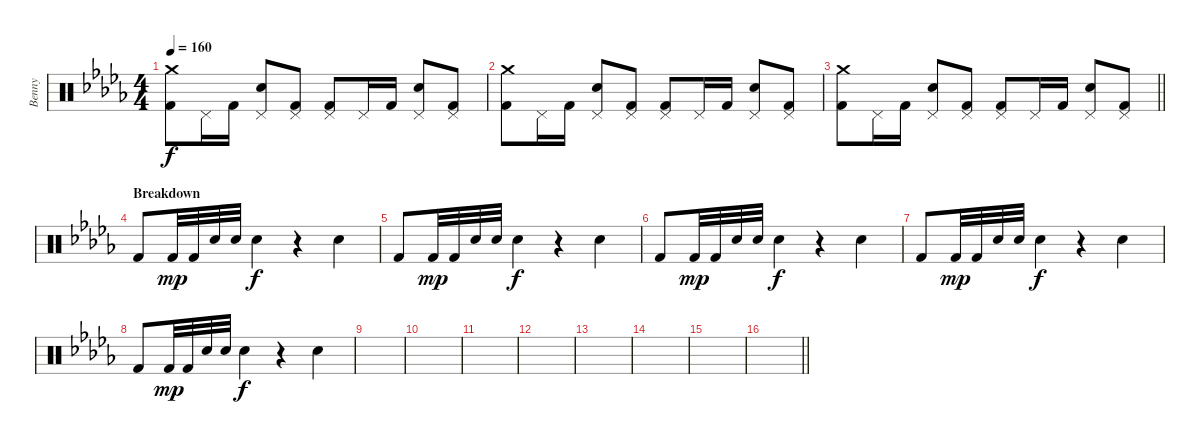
\track ("Benny" "Benny") {instrument percussion}
\staff {score}
\articulation defaults
\ts (4 4)
\tempo 160
\clef neutral
\ks db
("Crash medium (hit)" "Kick (hit) 2").8{dy f} "Pedal Hi-Hat (hit)".16 "Kick (hit) 2".16 ("Pedal Hi-Hat (hit)" "Snare (hit) 2").8 ("Pedal Hi-Hat (hit)" "Kick (hit) 2").8 ("Pedal Hi-Hat (hit)" "Kick (hit) 2").8 "Pedal Hi-Hat (hit)".16 "Kick (hit) 2".16 ("Pedal Hi-Hat (hit)" "Snare (hit) 2").8 ("Pedal Hi-Hat (hit)" "Kick (hit) 2").8 |
("Crash medium (hit)" "Kick (hit) 2").8 "Pedal Hi-Hat (hit)".16 "Kick (hit) 2".16 ("Pedal Hi-Hat (hit)" "Snare (hit) 2").8 ("Pedal Hi-Hat (hit)" "Kick (hit) 2").8 ("Pedal Hi-Hat (hit)" "Kick (hit) 2").8 "Pedal Hi-Hat (hit)".16 "Kick (hit) 2".16 ("Pedal Hi-Hat (hit)" "Snare (hit) 2").8 ("Pedal Hi-Hat (hit)" "Kick (hit) 2").8 |
\barLineRight lightlight
("Crash medium (hit)" "Kick (hit) 2").8 "Pedal Hi-Hat (hit)".16 "Kick (hit) 2".16 ("Pedal Hi-Hat (hit)" "Snare (hit) 2").8 ("Pedal Hi-Hat (hit)" "Kick (hit) 2").8 ("Pedal Hi-Hat (hit)" "Kick (hit) 2").8 "Pedal Hi-Hat (hit)".16 "Kick (hit) 2".16 ("Pedal Hi-Hat (hit)" "Snare (hit) 2").8 ("Pedal Hi-Hat (hit)" "Kick (hit) 2").8 |
\section ("" "Breakdown")
"Kick (hit) 2".8 "Kick (hit) 2".32{dy mp} "Kick (hit) 2".32 "Snare (hit) 2".32 "Snare (hit) 2".32 "Snare (hit) 2".4{dy f} r.4 "Snare (hit) 2".4 |
"Kick (hit) 2".8 "Kick (hit) 2".32{dy mp} "Kick (hit) 2".32 "Snare (hit) 2".32 "Snare (hit) 2".32 "Snare (hit) 2".4{dy f} r.4 "Snare (hit) 2".4 |
"Kick (hit) 2".8 "Kick (hit) 2".32{dy mp} "Kick (hit) 2".32 "Snare (hit) 2".32 "Snare (hit) 2".32 "Snare (hit) 2".4{dy f} r.4 "Snare (hit) 2".4 |
"Kick (hit) 2".8 "Kick (hit) 2".32{dy mp} "Kick (hit) 2".32 "Snare (hit) 2".32 "Snare (hit) 2".32 "Snare (hit) 2".4{dy f} r.4 "Snare (hit) 2".4 |
"Kick (hit) 2".8 "Kick (hit) 2".32{dy mp} "Kick (hit) 2".32 "Snare (hit) 2".32 "Snare (hit) 2".32 "Snare (hit) 2".4{dy f} r.4 "Snare (hit) 2".4 |
|
|
|
|
|
|
|
\barLineRight lightlight
